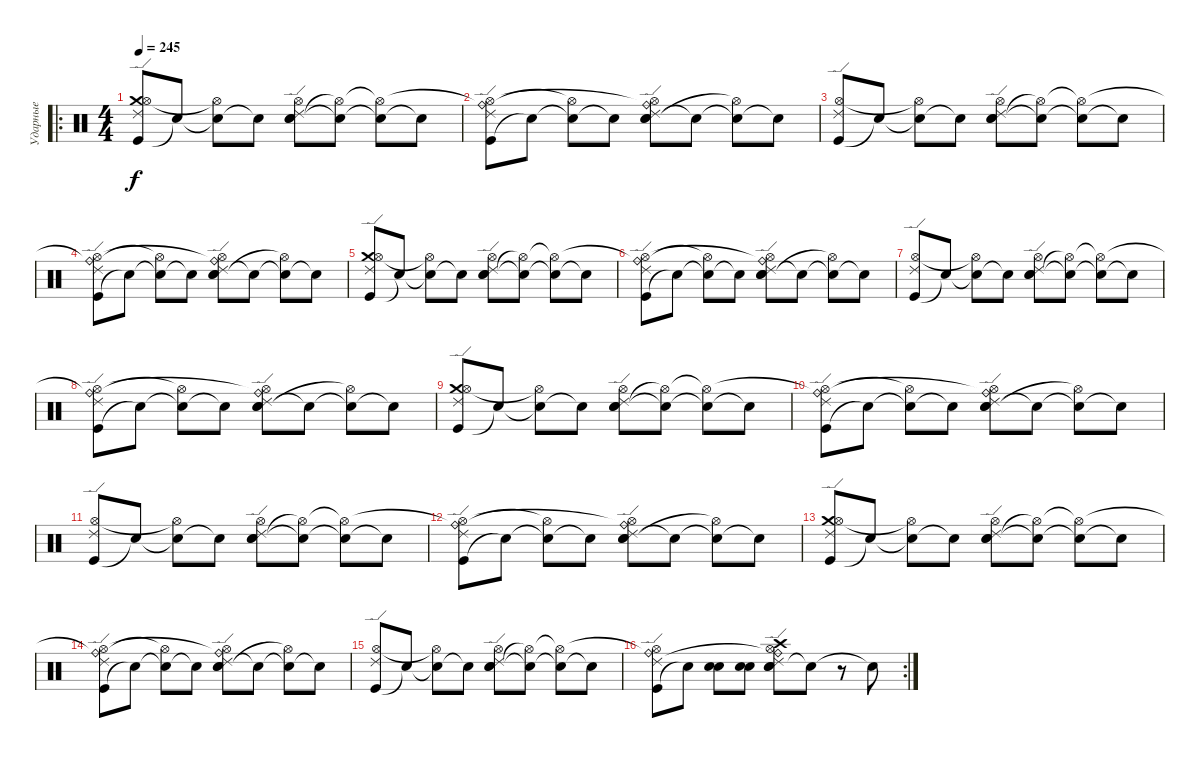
\track ("Ударные" "Ударные") {instrument percussion}
\staff {score}
\articulation defaults
\ro
\ts (4 4)
\tempo 245
\clef neutral
\ks c
("Kick (hit)" "Crash medium (hit)" "Hi-Hat (open)" "Ride (edge) 2").8{dy f} "Snare (hit)"{t}.8 ("Electric Snare (hit)"{t} "Hi-Hat (open)"{t}).8 "Snare (hit)"{t}.8 ("Electric Snare (hit)" "Snare (hit) 2" "Hi-Hat (open)" "Ride (edge) 2").8 ("Electric Snare (hit)"{t} "Hi-Hat (open)"{t}).8 ("Snare (hit)"{t} "Hi-Hat (open)"{t}).8 "Snare (hit)"{t}.8 |
("Kick (hit)" "Ride (bell)"{t} "Hi-Hat (open)" "Ride (edge) 2").8 "Snare (hit)"{t}.8 ("Snare (hit)"{t} "Hi-Hat (open)"{t}).8 "Snare (hit)"{t}.8 ("Electric Snare (hit)" "Snare (hit) 2" "Ride (bell)"{t} "Hi-Hat (open)" "Ride (edge) 2").8 "Snare (hit)"{t}.8 ("Snare (hit)"{t} "Hi-Hat (open)"{t}).8 "Snare (hit)"{t}.8 |
("Kick (hit)" "Hi-Hat (open)" "Ride (edge) 2").8 "Snare (hit)"{t}.8 ("Electric Snare (hit)"{t} "Hi-Hat (open)"{t}).8 "Snare (hit)"{t}.8 ("Electric Snare (hit)" "Snare (hit) 2" "Hi-Hat (open)" "Ride (edge) 2").8 ("Electric Snare (hit)"{t} "Hi-Hat (open)"{t}).8 ("Snare (hit)"{t} "Hi-Hat (open)"{t}).8 "Snare (hit)"{t}.8 |
("Kick (hit)" "Ride (bell)"{t} "Hi-Hat (open)" "Ride (edge) 2").8 "Snare (hit)"{t}.8 ("Snare (hit)"{t} "Hi-Hat (open)"{t}).8 "Snare (hit)"{t}.8 ("Electric Snare (hit)" "Snare (hit) 2" "Ride (bell)"{t} "Hi-Hat (open)" "Ride (edge) 2").8 "Snare (hit)"{t}.8 ("Snare (hit)"{t} "Hi-Hat (open)"{t}).8 "Snare (hit)"{t}.8 |
("Kick (hit)" "Crash medium (hit)" "Hi-Hat (open)" "Ride (edge) 2").8 "Snare (hit)"{t}.8 ("Electric Snare (hit)"{t} "Hi-Hat (open)"{t}).8 "Snare (hit)"{t}.8 ("Electric Snare (hit)" "Snare (hit) 2" "Hi-Hat (open)" "Ride (edge) 2").8 ("Electric Snare (hit)"{t} "Hi-Hat (open)"{t}).8 ("Snare (hit)"{t} "Hi-Hat (open)"{t}).8 "Snare (hit)"{t}.8 |
("Kick (hit)" "Ride (bell)"{t} "Hi-Hat (open)" "Ride (edge) 2").8 "Snare (hit)"{t}.8 ("Snare (hit)"{t} "Hi-Hat (open)"{t}).8 "Snare (hit)"{t}.8 ("Electric Snare (hit)" "Snare (hit) 2" "Ride (bell)"{t} "Hi-Hat (open)" "Ride (edge) 2").8 "Snare (hit)"{t}.8 ("Snare (hit)"{t} "Hi-Hat (open)"{t}).8 "Snare (hit)"{t}.8 |
("Kick (hit)" "Hi-Hat (open)" "Ride (edge) 2").8 "Snare (hit)"{t}.8 ("Electric Snare (hit)"{t} "Hi-Hat (open)"{t}).8 "Snare (hit)"{t}.8 ("Electric Snare (hit)" "Snare (hit) 2" "Hi-Hat (open)" "Ride (edge) 2").8 ("Electric Snare (hit)"{t} "Hi-Hat (open)"{t}).8 ("Snare (hit)"{t} "Hi-Hat (open)"{t}).8 "Snare (hit)"{t}.8 |
("Kick (hit)" "Ride (bell)"{t} "Hi-Hat (open)" "Ride (edge) 2").8 "Snare (hit)"{t}.8 ("Snare (hit)"{t} "Hi-Hat (open)"{t}).8 "Snare (hit)"{t}.8 ("Electric Snare (hit)" "Snare (hit) 2" "Ride (bell)"{t} "Hi-Hat (open)" "Ride (edge) 2").8 "Snare (hit)"{t}.8 ("Snare (hit)"{t} "Hi-Hat (open)"{t}).8 "Snare (hit)"{t}.8 |
("Kick (hit)" "Crash medium (hit)" "Hi-Hat (open)" "Ride (edge) 2").8 "Snare (hit)"{t}.8 ("Electric Snare (hit)"{t} "Hi-Hat (open)"{t}).8 "Snare (hit)"{t}.8 ("Electric Snare (hit)" "Snare (hit) 2" "Hi-Hat (open)" "Ride (edge) 2").8 ("Electric Snare (hit)"{t} "Hi-Hat (open)"{t}).8 ("Snare (hit)"{t} "Hi-Hat (open)"{t}).8 "Snare (hit)"{t}.8 |
("Kick (hit)" "Ride (bell)"{t} "Hi-Hat (open)" "Ride (edge) 2").8 "Snare (hit)"{t}.8 ("Snare (hit)"{t} "Hi-Hat (open)"{t}).8 "Snare (hit)"{t}.8 ("Electric Snare (hit)" "Snare (hit) 2" "Ride (bell)"{t} "Hi-Hat (open)" "Ride (edge) 2").8 "Snare (hit)"{t}.8 ("Snare (hit)"{t} "Hi-Hat (open)"{t}).8 "Snare (hit)"{t}.8 |
("Kick (hit)" "Hi-Hat (open)" "Ride (edge) 2").8 "Snare (hit)"{t}.8 ("Electric Snare (hit)"{t} "Hi-Hat (open)"{t}).8 "Snare (hit)"{t}.8 ("Electric Snare (hit)" "Snare (hit) 2" "Hi-Hat (open)" "Ride (edge) 2").8 ("Electric Snare (hit)"{t} "Hi-Hat (open)"{t}).8 ("Snare (hit)"{t} "Hi-Hat (open)"{t}).8 "Snare (hit)"{t}.8 |
("Kick (hit)" "Ride (bell)"{t} "Hi-Hat (open)" "Ride (edge) 2").8 "Snare (hit)"{t}.8 ("Snare (hit)"{t} "Hi-Hat (open)"{t}).8 "Snare (hit)"{t}.8 ("Electric Snare (hit)" "Snare (hit) 2" "Ride (bell)"{t} "Hi-Hat (open)" "Ride (edge) 2").8 "Snare (hit)"{t}.8 ("Snare (hit)"{t} "Hi-Hat (open)"{t}).8 "Snare (hit)"{t}.8 |
("Kick (hit)" "Crash medium (hit)" "Hi-Hat (open)" "Ride (edge) 2").8 "Snare (hit)"{t}.8 ("Electric Snare (hit)"{t} "Hi-Hat (open)"{t}).8 "Snare (hit)"{t}.8 ("Electric Snare (hit)" "Snare (hit) 2" "Hi-Hat (open)" "Ride (edge) 2").8 ("Electric Snare (hit)"{t} "Hi-Hat (open)"{t}).8 ("Snare (hit)"{t} "Hi-Hat (open)"{t}).8 "Snare (hit)"{t}.8 |
("Kick (hit)" "Ride (bell)"{t} "Hi-Hat (open)" "Ride (edge) 2").8 "Snare (hit)"{t}.8 ("Snare (hit)"{t} "Hi-Hat (open)"{t}).8 "Snare (hit)"{t}.8 ("Electric Snare (hit)" "Snare (hit) 2" "Ride (bell)"{t} "Hi-Hat (open)" "Ride (edge) 2").8 "Snare (hit)"{t}.8 ("Snare (hit)"{t} "Hi-Hat (open)"{t}).8 "Snare (hit)"{t}.8 |
("Kick (hit)" "Hi-Hat (open)" "Ride (edge) 2").8 "Snare (hit)"{t}.8 ("Electric Snare (hit)"{t} "Hi-Hat (open)"{t}).8 "Snare (hit)"{t}.8 ("Electric Snare (hit)" "Snare (hit) 2" "Hi-Hat (open)" "Ride (edge) 2").8 ("Electric Snare (hit)"{t} "Hi-Hat (open)"{t}).8 ("Snare (hit)"{t} "Hi-Hat (open)"{t}).8 "Snare (hit)"{t}.8 |
\rc 2
("Kick (hit)" "Ride (bell)"{t} "Hi-Hat (open)" "Ride (edge) 2").8 "Snare (hit)"{t}.8 ("Electric Snare (hit)" "Snare (hit) 2").8 ("Electric Snare (hit)" "Snare (hit) 2").8 ("Electric Snare (hit)" "Snare (hit) 2" "Crash high (hit)" "Ride (bell)"{t} "Hi-Hat (open)" "Ride (edge) 2").8 "Electric Snare (hit)"{t}.8 r.8 "Snare (hit)"{t}.8
